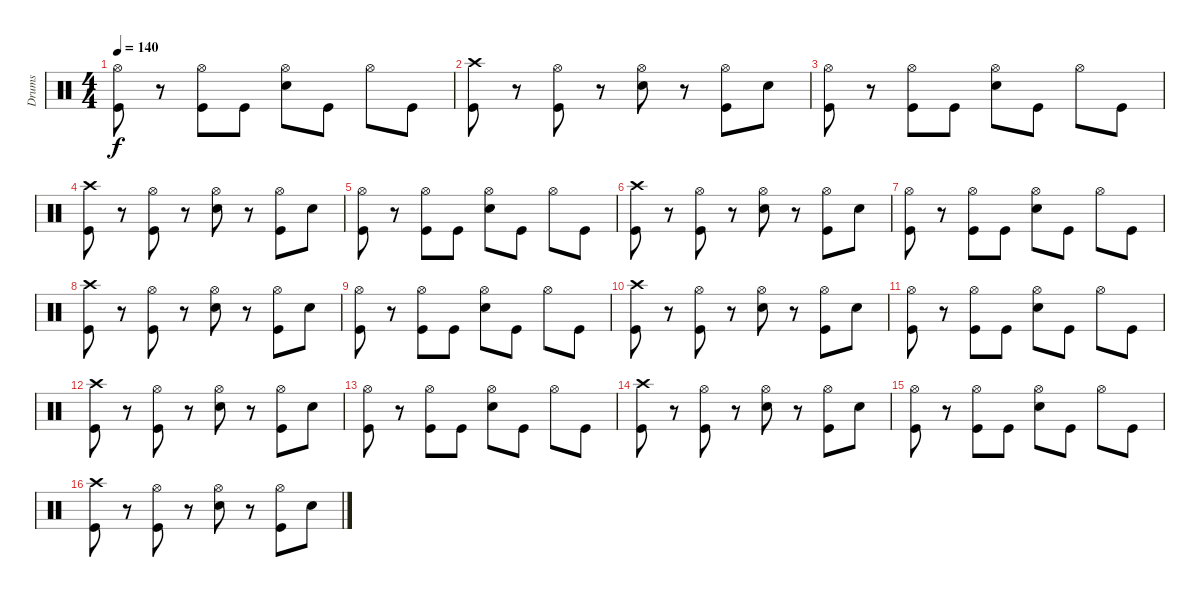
\track ("Drums" "Drums") {instrument percussion}
\staff {score}
\articulation defaults
\ts (4 4)
\tempo 140
\clef neutral
\ks c
("Hi-Hat (open)" "Kick (hit)").8{dy f} r.8 ("Hi-Hat (open)" "Kick (hit)").8 "Kick (hit)".8 ("Hi-Hat (open)" "Snare (hit) 2").8 "Kick (hit)".8 "Hi-Hat (open)".8 "Kick (hit)".8 |
("Crash high (hit)" "Kick (hit)").8 r.8 ("Hi-Hat (open)" "Kick (hit)").8 r.8 ("Hi-Hat (open)" "Snare (hit) 2").8 r.8 ("Hi-Hat (open)" "Kick (hit)").8 "Snare (hit) 2".8 |
("Hi-Hat (open)" "Kick (hit)").8 r.8 ("Hi-Hat (open)" "Kick (hit)").8 "Kick (hit)".8 ("Hi-Hat (open)" "Snare (hit) 2").8 "Kick (hit)".8 "Hi-Hat (open)".8 "Kick (hit)".8 |
("Crash high (hit)" "Kick (hit)").8 r.8 ("Hi-Hat (open)" "Kick (hit)").8 r.8 ("Hi-Hat (open)" "Snare (hit) 2").8 r.8 ("Hi-Hat (open)" "Kick (hit)").8 "Snare (hit) 2".8 |
("Hi-Hat (open)" "Kick (hit)").8 r.8 ("Hi-Hat (open)" "Kick (hit)").8 "Kick (hit)".8 ("Hi-Hat (open)" "Snare (hit) 2").8 "Kick (hit)".8 "Hi-Hat (open)".8 "Kick (hit)".8 |
("Crash high (hit)" "Kick (hit)").8 r.8 ("Hi-Hat (open)" "Kick (hit)").8 r.8 ("Hi-Hat (open)" "Snare (hit) 2").8 r.8 ("Hi-Hat (open)" "Kick (hit)").8 "Snare (hit) 2".8 |
("Hi-Hat (open)" "Kick (hit)").8 r.8 ("Hi-Hat (open)" "Kick (hit)").8 "Kick (hit)".8 ("Hi-Hat (open)" "Snare (hit) 2").8 "Kick (hit)".8 "Hi-Hat (open)".8 "Kick (hit)".8 |
("Crash high (hit)" "Kick (hit)").8 r.8 ("Hi-Hat (open)" "Kick (hit)").8 r.8 ("Hi-Hat (open)" "Snare (hit) 2").8 r.8 ("Hi-Hat (open)" "Kick (hit)").8 "Snare (hit) 2".8 |
("Hi-Hat (open)" "Kick (hit)").8 r.8 ("Hi-Hat (open)" "Kick (hit)").8 "Kick (hit)".8 ("Hi-Hat (open)" "Snare (hit) 2").8 "Kick (hit)".8 "Hi-Hat (open)".8 "Kick (hit)".8 |
("Crash high (hit)" "Kick (hit)").8 r.8 ("Hi-Hat (open)" "Kick (hit)").8 r.8 ("Hi-Hat (open)" "Snare (hit) 2").8 r.8 ("Hi-Hat (open)" "Kick (hit)").8 "Snare (hit) 2".8 |
("Hi-Hat (open)" "Kick (hit)").8 r.8 ("Hi-Hat (open)" "Kick (hit)").8 "Kick (hit)".8 ("Hi-Hat (open)" "Snare (hit) 2").8 "Kick (hit)".8 "Hi-Hat (open)".8 "Kick (hit)".8 |
("Crash high (hit)" "Kick (hit)").8 r.8 ("Hi-Hat (open)" "Kick (hit)").8 r.8 ("Hi-Hat (open)" "Snare (hit) 2").8 r.8 ("Hi-Hat (open)" "Kick (hit)").8 "Snare (hit) 2".8 |
("Hi-Hat (open)" "Kick (hit)").8 r.8 ("Hi-Hat (open)" "Kick (hit)").8 "Kick (hit)".8 ("Hi-Hat (open)" "Snare (hit) 2").8 "Kick (hit)".8 "Hi-Hat (open)".8 "Kick (hit)".8 |
("Crash high (hit)" "Kick (hit)").8 r.8 ("Hi-Hat (open)" "Kick (hit)").8 r.8 ("Hi-Hat (open)" "Snare (hit) 2").8 r.8 ("Hi-Hat (open)" "Kick (hit)").8 "Snare (hit) 2".8 |
("Hi-Hat (open)" "Kick (hit)").8 r.8 ("Hi-Hat (open)" "Kick (hit)").8 "Kick (hit)".8 ("Hi-Hat (open)" "Snare (hit) 2").8 "Kick (hit)".8 "Hi-Hat (open)".8 "Kick (hit)".8 |
("Crash high (hit)" "Kick (hit)").8 r.8 ("Hi-Hat (open)" "Kick (hit)").8 r.8 ("Hi-Hat (open)" "Snare (hit) 2").8 r.8 ("Hi-Hat (open)" "Kick (hit)").8 "Snare (hit) 2".8
